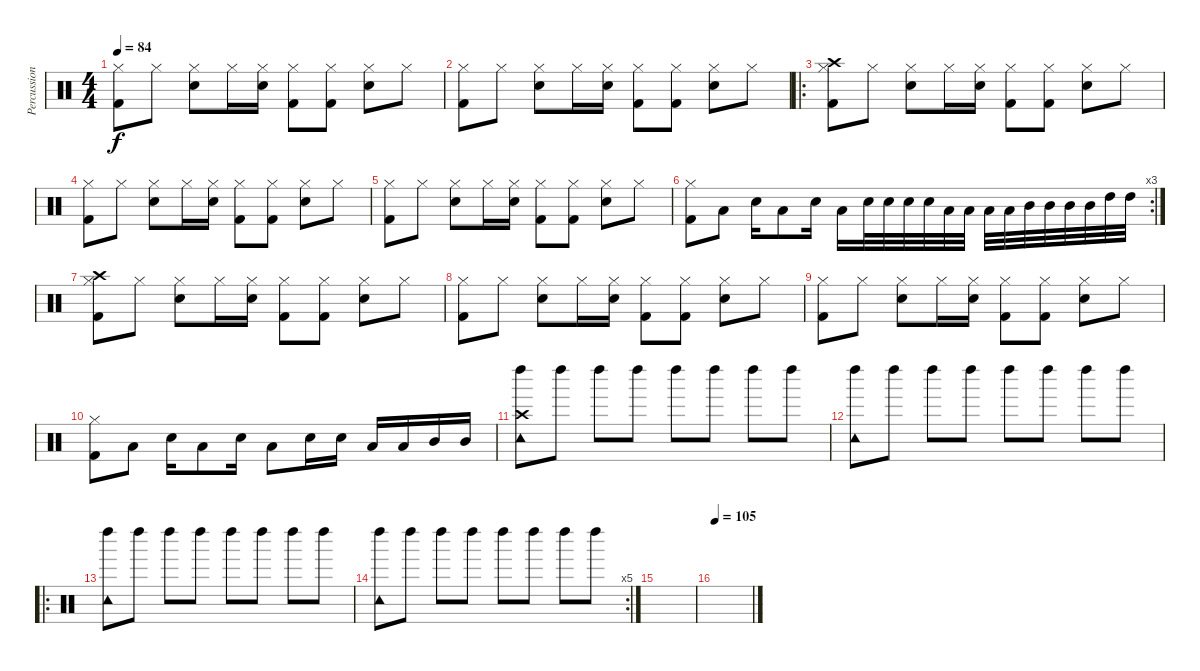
\track ("Percussioni" "Percussion") {instrument percussion}
\staff {score}
\articulation defaults
\ts (4 4)
\tempo 84
\clef neutral
\ks c
("Hi-Hat (closed)" "Kick (hit) 2").8{dy f} "Hi-Hat (closed)".8 ("Hi-Hat (closed)" "Electric Snare (hit)").8 "Hi-Hat (closed)".16 ("Hi-Hat (closed)" "Electric Snare (hit)").16 ("Hi-Hat (closed)" "Kick (hit) 2").8 ("Hi-Hat (closed)" "Kick (hit) 2").8 ("Hi-Hat (closed)" "Electric Snare (hit)").8 "Hi-Hat (closed)".8 |
("Hi-Hat (closed)" "Kick (hit) 2").8 "Hi-Hat (closed)".8 ("Hi-Hat (closed)" "Electric Snare (hit)").8 "Hi-Hat (closed)".16 ("Hi-Hat (closed)" "Electric Snare (hit)").16 ("Hi-Hat (closed)" "Kick (hit) 2").8 ("Hi-Hat (closed)" "Kick (hit) 2").8 ("Hi-Hat (closed)" "Electric Snare (hit)").8 "Hi-Hat (closed)".8 |
\ro
("Hi-Hat (closed)" "Kick (hit) 2" "Crash high (hit)").8 "Hi-Hat (closed)".8 ("Hi-Hat (closed)" "Electric Snare (hit)").8 "Hi-Hat (closed)".16 ("Hi-Hat (closed)" "Electric Snare (hit)").16 ("Hi-Hat (closed)" "Kick (hit) 2").8 ("Hi-Hat (closed)" "Kick (hit) 2").8 ("Hi-Hat (closed)" "Electric Snare (hit)").8 "Hi-Hat (closed)".8 |
("Hi-Hat (closed)" "Kick (hit) 2").8 "Hi-Hat (closed)".8 ("Hi-Hat (closed)" "Electric Snare (hit)").8 "Hi-Hat (closed)".16 ("Hi-Hat (closed)" "Electric Snare (hit)").16 ("Hi-Hat (closed)" "Kick (hit) 2").8 ("Hi-Hat (closed)" "Kick (hit) 2").8 ("Hi-Hat (closed)" "Electric Snare (hit)").8 "Hi-Hat (closed)".8 |
("Hi-Hat (closed)" "Kick (hit) 2").8 "Hi-Hat (closed)".8 ("Hi-Hat (closed)" "Electric Snare (hit)").8 "Hi-Hat (closed)".16 ("Hi-Hat (closed)" "Electric Snare (hit)").16 ("Hi-Hat (closed)" "Kick (hit) 2").8 ("Hi-Hat (closed)" "Kick (hit) 2").8 ("Hi-Hat (closed)" "Electric Snare (hit)").8 "Hi-Hat (closed)".8 |
\rc 3
("Hi-Hat (closed)" "Kick (hit) 2").8 "Low Tom (hit)".8 "Electric Snare (hit)".16 "Low Tom (hit)".8 "Electric Snare (hit)".16 "Low Tom (hit)".16 "Electric Snare (hit)".32 "Electric Snare (hit)".32 "Electric Snare (hit)".32 "Electric Snare (hit)".32 "Low Tom (hit)".32 "Low Tom (hit)".32 "Low Tom (hit)".32 "Low Tom (hit)".32 "Mid Tom (hit)".32 "Mid Tom (hit)".32 "Mid Tom (hit)".32 "Mid Tom (hit)".32 "High Tom (hit)".32 "High Tom (hit)".32 |
("Hi-Hat (closed)" "Kick (hit) 2" "Crash high (hit)").8 "Hi-Hat (closed)".8 ("Hi-Hat (closed)" "Electric Snare (hit)").8 "Hi-Hat (closed)".16 ("Hi-Hat (closed)" "Electric Snare (hit)").16 ("Hi-Hat (closed)" "Kick (hit) 2").8 ("Hi-Hat (closed)" "Kick (hit) 2").8 ("Hi-Hat (closed)" "Electric Snare (hit)").8 "Hi-Hat (closed)".8 |
("Hi-Hat (closed)" "Kick (hit) 2").8 "Hi-Hat (closed)".8 ("Hi-Hat (closed)" "Electric Snare (hit)").8 "Hi-Hat (closed)".16 ("Hi-Hat (closed)" "Electric Snare (hit)").16 ("Hi-Hat (closed)" "Kick (hit) 2").8 ("Hi-Hat (closed)" "Kick (hit) 2").8 ("Hi-Hat (closed)" "Electric Snare (hit)").8 "Hi-Hat (closed)".8 |
("Hi-Hat (closed)" "Kick (hit) 2").8 "Hi-Hat (closed)".8 ("Hi-Hat (closed)" "Electric Snare (hit)").8 "Hi-Hat (closed)".16 ("Hi-Hat (closed)" "Electric Snare (hit)").16 ("Hi-Hat (closed)" "Kick (hit) 2").8 ("Hi-Hat (closed)" "Kick (hit) 2").8 ("Hi-Hat (closed)" "Electric Snare (hit)").8 "Hi-Hat (closed)".8 |
("Hi-Hat (closed)" "Kick (hit) 2").8 "Low Tom (hit)".8 "Electric Snare (hit)".16 "Low Tom (hit)".8 "Electric Snare (hit)".16 "Low Tom (hit)".8 "Electric Snare (hit)".16 "Electric Snare (hit)".16 "Low Tom (hit)".16 "Low Tom (hit)".16 "Mid Tom (hit)".16 "Mid Tom (hit)".16 |
("Crash high (hit)" "Left Maraca (hit)" "Tambourine (hit)").8 "Left Maraca (hit)".8 "Left Maraca (hit)".8 "Left Maraca (hit)".8 "Left Maraca (hit)".8 "Left Maraca (hit)".8 "Left Maraca (hit)".8 "Left Maraca (hit)".8 |
("Left Maraca (hit)" "Tambourine (hit)").8 "Left Maraca (hit)".8 "Left Maraca (hit)".8 "Left Maraca (hit)".8 "Left Maraca (hit)".8 "Left Maraca (hit)".8 "Left Maraca (hit)".8 "Left Maraca (hit)".8 |
\ro
("Left Maraca (hit)" "Tambourine (hit)").8 "Left Maraca (hit)".8 "Left Maraca (hit)".8 "Left Maraca (hit)".8 "Left Maraca (hit)".8 "Left Maraca (hit)".8 "Left Maraca (hit)".8 "Left Maraca (hit)".8 |
\rc 5
("Left Maraca (hit)" "Tambourine (hit)").8 "Left Maraca (hit)".8 "Left Maraca (hit)".8 "Left Maraca (hit)".8 "Left Maraca (hit)".8 "Left Maraca (hit)".8 "Left Maraca (hit)".8 "Left Maraca (hit)".8 |
|
\tempo 105
